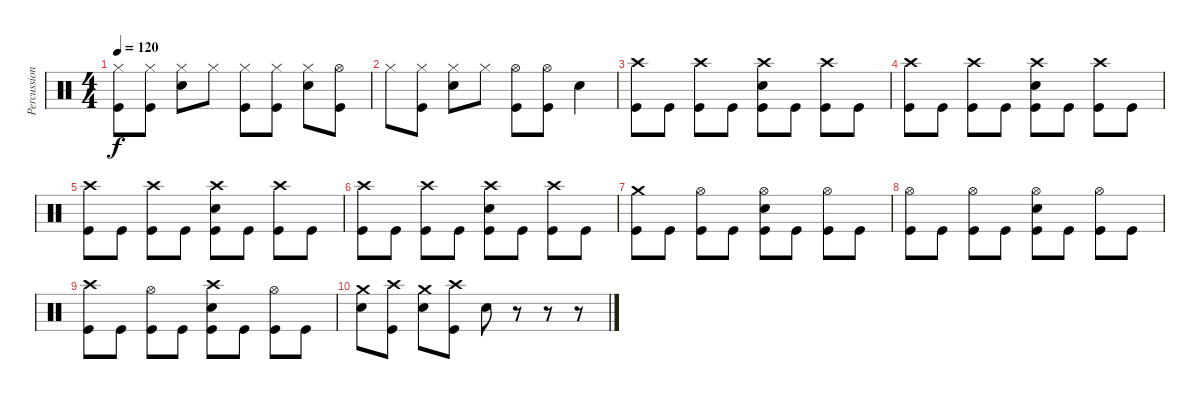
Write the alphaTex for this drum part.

\track ("Percussion" "Percussion") {instrument percussion}
\staff {score}
\articulation defaults
\ts (4 4)
\tempo 120
\clef neutral
\ks c
("Kick (hit)" "Hi-Hat (closed)").8{dy f} ("Hi-Hat (closed)" "Kick (hit)").8 ("Snare (hit) 2" "Hi-Hat (closed)").8 "Hi-Hat (closed)".8 ("Kick (hit)" "Hi-Hat (closed)").8 ("Hi-Hat (closed)" "Kick (hit)").8 ("Hi-Hat (closed)" "Snare (hit) 2").8 ("Hi-Hat (open)" "Kick (hit)").8 |
"Hi-Hat (closed)".8 ("Kick (hit)" "Hi-Hat (closed)").8 ("Hi-Hat (closed)" "Snare (hit) 2").8 "Hi-Hat (closed)".8 ("Hi-Hat (open)" "Kick (hit)").8 ("Hi-Hat (open)" "Kick (hit)").8 "Snare (hit) 2".4 |
("Kick (hit)" "Crash high (hit)").8 "Kick (hit)".8 ("Kick (hit)" "Crash high (hit)").8 "Kick (hit)".8 ("Kick (hit)" "Snare (hit) 2" "Crash high (hit)").8 "Kick (hit)".8 ("Kick (hit)" "Crash high (hit)").8 "Kick (hit)".8 |
("Kick (hit)" "Crash high (hit)").8 "Kick (hit)".8 ("Kick (hit)" "Crash high (hit)").8 "Kick (hit)".8 ("Kick (hit)" "Snare (hit) 2" "Crash high (hit)").8 "Kick (hit)".8 ("Kick (hit)" "Crash high (hit)").8 "Kick (hit)".8 |
("Kick (hit)" "Crash high (hit)").8 "Kick (hit)".8 ("Kick (hit)" "Crash high (hit)").8 "Kick (hit)".8 ("Kick (hit)" "Snare (hit) 2" "Crash high (hit)").8 "Kick (hit)".8 ("Kick (hit)" "Crash high (hit)").8 "Kick (hit)".8 |
("Kick (hit)" "Crash high (hit)").8 "Kick (hit)".8 ("Kick (hit)" "Crash high (hit)").8 "Kick (hit)".8 ("Kick (hit)" "Snare (hit) 2" "Crash high (hit)").8 "Kick (hit)".8 ("Kick (hit)" "Crash high (hit)").8 "Kick (hit)".8 |
("Kick (hit)" "Crash medium (hit)").8 "Kick (hit)".8 ("Kick (hit)" "Hi-Hat (open)").8 "Kick (hit)".8 ("Kick (hit)" "Snare (hit) 2" "Hi-Hat (open)").8 "Kick (hit)".8 ("Kick (hit)" "Hi-Hat (open)").8 "Kick (hit)".8 |
("Kick (hit)" "Hi-Hat (open)").8 "Kick (hit)".8 ("Kick (hit)" "Hi-Hat (open)").8 "Kick (hit)".8 ("Kick (hit)" "Snare (hit) 2" "Hi-Hat (open)").8 "Kick (hit)".8 ("Kick (hit)" "Hi-Hat (open)").8 "Kick (hit)".8 |
("Kick (hit)" "Crash high (hit)").8 "Kick (hit)".8 ("Kick (hit)" "Hi-Hat (open)").8 "Kick (hit)".8 ("Kick (hit)" "Snare (hit) 2" "Crash high (hit)").8 "Kick (hit)".8 ("Kick (hit)" "Hi-Hat (open)").8 "Kick (hit)".8 |
("Snare (hit) 2" "Crash medium (hit)").8 ("Kick (hit)" "Crash high (hit)").8 ("Snare (hit) 2" "Crash medium (hit)").8 ("Kick (hit)" "Crash high (hit)").8 "Snare (hit) 2".8 r.8 r.8 r.8
